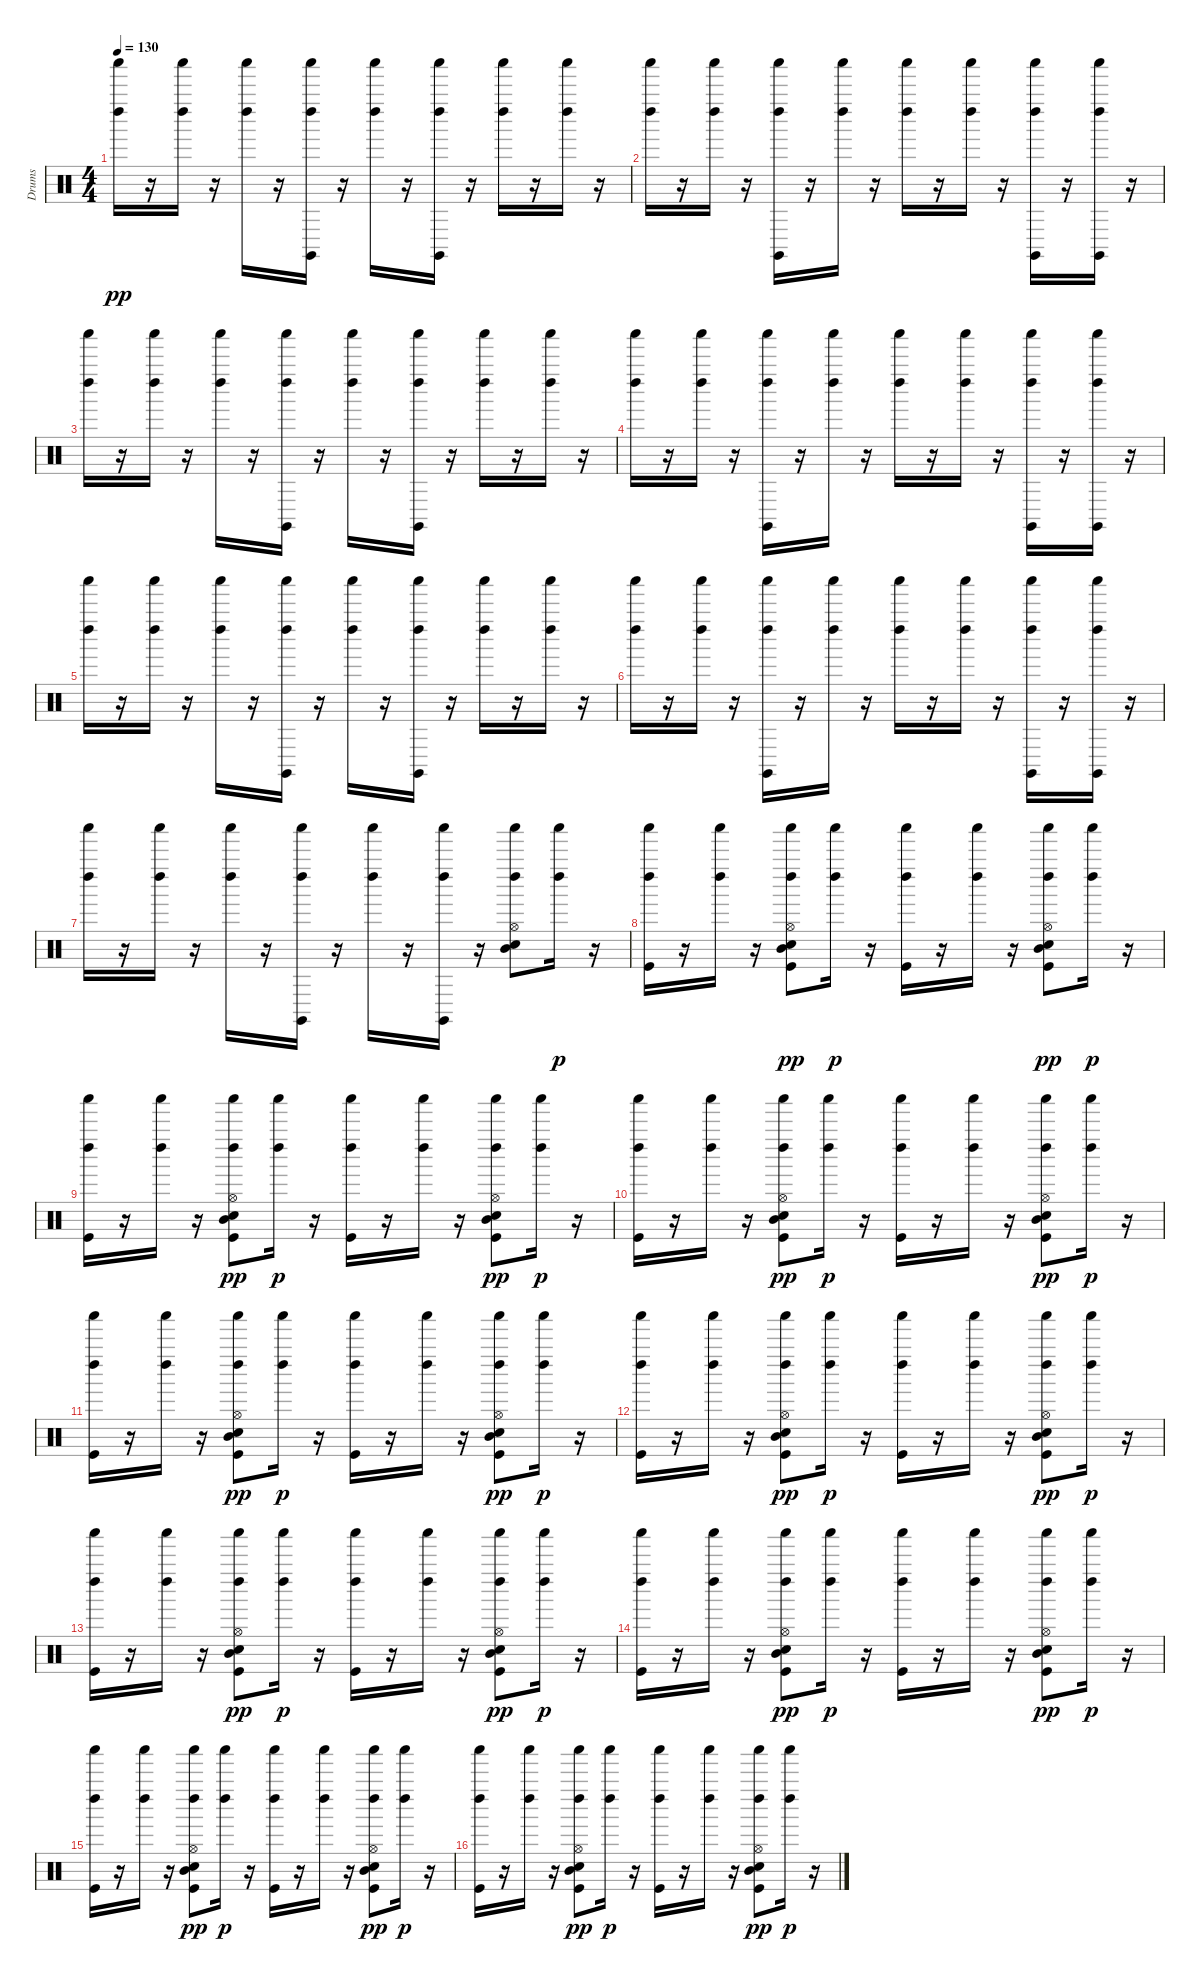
\track ("Drums" "Drums") {instrument percussion}
\staff {score}
\articulation defaults
\ts (4 4)
\tempo 130
\clef neutral
\ks c
("Shaker (hit)" "Left Maraca (hit)").16{dy pp} r.16 ("Shaker (hit)" "Left Maraca (hit)").16 r.16 ("Shaker (hit)" "Left Maraca (hit)").16 r.16 ("Claves (hit)" "Shaker (hit)" "Left Maraca (hit)").16 r.16 ("Shaker (hit)" "Left Maraca (hit)").16 r.16 ("Claves (hit)" "Shaker (hit)" "Left Maraca (hit)").16 r.16 ("Shaker (hit)" "Left Maraca (hit)").16 r.16 ("Shaker (hit)" "Left Maraca (hit)").16 r.16 |
("Shaker (hit)" "Left Maraca (hit)").16 r.16 ("Shaker (hit)" "Left Maraca (hit)").16 r.16 ("Claves (hit)" "Shaker (hit)" "Left Maraca (hit)").16 r.16 ("Shaker (hit)" "Left Maraca (hit)").16 r.16 ("Shaker (hit)" "Left Maraca (hit)").16 r.16 ("Shaker (hit)" "Left Maraca (hit)").16 r.16 ("Claves (hit)" "Shaker (hit)" "Left Maraca (hit)").16 r.16 ("Claves (hit)" "Shaker (hit)" "Left Maraca (hit)").16 r.16 |
("Shaker (hit)" "Left Maraca (hit)").16 r.16 ("Shaker (hit)" "Left Maraca (hit)").16 r.16 ("Shaker (hit)" "Left Maraca (hit)").16 r.16 ("Claves (hit)" "Shaker (hit)" "Left Maraca (hit)").16 r.16 ("Shaker (hit)" "Left Maraca (hit)").16 r.16 ("Claves (hit)" "Shaker (hit)" "Left Maraca (hit)").16 r.16 ("Shaker (hit)" "Left Maraca (hit)").16 r.16 ("Shaker (hit)" "Left Maraca (hit)").16 r.16 |
("Shaker (hit)" "Left Maraca (hit)").16 r.16 ("Shaker (hit)" "Left Maraca (hit)").16 r.16 ("Claves (hit)" "Shaker (hit)" "Left Maraca (hit)").16 r.16 ("Shaker (hit)" "Left Maraca (hit)").16 r.16 ("Shaker (hit)" "Left Maraca (hit)").16 r.16 ("Shaker (hit)" "Left Maraca (hit)").16 r.16 ("Claves (hit)" "Shaker (hit)" "Left Maraca (hit)").16 r.16 ("Claves (hit)" "Shaker (hit)" "Left Maraca (hit)").16 r.16 |
("Shaker (hit)" "Left Maraca (hit)").16 r.16 ("Shaker (hit)" "Left Maraca (hit)").16 r.16 ("Shaker (hit)" "Left Maraca (hit)").16 r.16 ("Claves (hit)" "Shaker (hit)" "Left Maraca (hit)").16 r.16 ("Shaker (hit)" "Left Maraca (hit)").16 r.16 ("Claves (hit)" "Shaker (hit)" "Left Maraca (hit)").16 r.16 ("Shaker (hit)" "Left Maraca (hit)").16 r.16 ("Shaker (hit)" "Left Maraca (hit)").16 r.16 |
("Shaker (hit)" "Left Maraca (hit)").16 r.16 ("Shaker (hit)" "Left Maraca (hit)").16 r.16 ("Claves (hit)" "Shaker (hit)" "Left Maraca (hit)").16 r.16 ("Shaker (hit)" "Left Maraca (hit)").16 r.16 ("Shaker (hit)" "Left Maraca (hit)").16 r.16 ("Shaker (hit)" "Left Maraca (hit)").16 r.16 ("Claves (hit)" "Shaker (hit)" "Left Maraca (hit)").16 r.16 ("Claves (hit)" "Shaker (hit)" "Left Maraca (hit)").16 r.16 |
("Shaker (hit)" "Left Maraca (hit)").16 r.16 ("Shaker (hit)" "Left Maraca (hit)").16 r.16 ("Shaker (hit)" "Left Maraca (hit)").16 r.16 ("Claves (hit)" "Shaker (hit)" "Left Maraca (hit)").16 r.16 ("Shaker (hit)" "Left Maraca (hit)").16 r.16 ("Claves (hit)" "Shaker (hit)" "Left Maraca (hit)").16 r.16 ("Snare (hit) 2" "Shaker (hit)" "Left Maraca (hit)" "Mid Tom (hit)" "Hi-Hat (open)").8 ("Shaker (hit)" "Left Maraca (hit)").16{dy p} r.16 |
("Kick (hit)" "Shaker (hit)" "Left Maraca (hit)").16 r.16 ("Shaker (hit)" "Left Maraca (hit)").16 r.16 ("Snare (hit) 2" "Kick (hit)" "Shaker (hit)" "Left Maraca (hit)" "Mid Tom (hit)" "Hi-Hat (open)").8{dy pp} ("Shaker (hit)" "Left Maraca (hit)").16{dy p} r.16 ("Kick (hit)" "Shaker (hit)" "Left Maraca (hit)").16 r.16 ("Shaker (hit)" "Left Maraca (hit)").16 r.16 ("Snare (hit) 2" "Kick (hit)" "Shaker (hit)" "Left Maraca (hit)" "Mid Tom (hit)" "Hi-Hat (open)").8{dy pp} ("Shaker (hit)" "Left Maraca (hit)").16{dy p} r.16 |
("Kick (hit)" "Shaker (hit)" "Left Maraca (hit)").16 r.16 ("Shaker (hit)" "Left Maraca (hit)").16 r.16 ("Snare (hit) 2" "Kick (hit)" "Shaker (hit)" "Left Maraca (hit)" "Mid Tom (hit)" "Hi-Hat (open)").8{dy pp} ("Shaker (hit)" "Left Maraca (hit)").16{dy p} r.16 ("Kick (hit)" "Shaker (hit)" "Left Maraca (hit)").16 r.16 ("Shaker (hit)" "Left Maraca (hit)").16 r.16 ("Snare (hit) 2" "Kick (hit)" "Shaker (hit)" "Left Maraca (hit)" "Mid Tom (hit)" "Hi-Hat (open)").8{dy pp} ("Shaker (hit)" "Left Maraca (hit)").16{dy p} r.16 |
("Kick (hit)" "Shaker (hit)" "Left Maraca (hit)").16 r.16 ("Shaker (hit)" "Left Maraca (hit)").16 r.16 ("Snare (hit) 2" "Kick (hit)" "Shaker (hit)" "Left Maraca (hit)" "Mid Tom (hit)" "Hi-Hat (open)").8{dy pp} ("Shaker (hit)" "Left Maraca (hit)").16{dy p} r.16 ("Kick (hit)" "Shaker (hit)" "Left Maraca (hit)").16 r.16 ("Shaker (hit)" "Left Maraca (hit)").16 r.16 ("Snare (hit) 2" "Kick (hit)" "Shaker (hit)" "Left Maraca (hit)" "Mid Tom (hit)" "Hi-Hat (open)").8{dy pp} ("Shaker (hit)" "Left Maraca (hit)").16{dy p} r.16 |
("Kick (hit)" "Shaker (hit)" "Left Maraca (hit)").16 r.16 ("Shaker (hit)" "Left Maraca (hit)").16 r.16 ("Snare (hit) 2" "Kick (hit)" "Shaker (hit)" "Left Maraca (hit)" "Mid Tom (hit)" "Hi-Hat (open)").8{dy pp} ("Shaker (hit)" "Left Maraca (hit)").16{dy p} r.16 ("Kick (hit)" "Shaker (hit)" "Left Maraca (hit)").16 r.16 ("Shaker (hit)" "Left Maraca (hit)").16 r.16 ("Snare (hit) 2" "Kick (hit)" "Shaker (hit)" "Left Maraca (hit)" "Mid Tom (hit)" "Hi-Hat (open)").8{dy pp} ("Shaker (hit)" "Left Maraca (hit)").16{dy p} r.16 |
("Kick (hit)" "Shaker (hit)" "Left Maraca (hit)").16 r.16 ("Shaker (hit)" "Left Maraca (hit)").16 r.16 ("Snare (hit) 2" "Kick (hit)" "Shaker (hit)" "Left Maraca (hit)" "Mid Tom (hit)" "Hi-Hat (open)").8{dy pp} ("Shaker (hit)" "Left Maraca (hit)").16{dy p} r.16 ("Kick (hit)" "Shaker (hit)" "Left Maraca (hit)").16 r.16 ("Shaker (hit)" "Left Maraca (hit)").16 r.16 ("Snare (hit) 2" "Kick (hit)" "Shaker (hit)" "Left Maraca (hit)" "Mid Tom (hit)" "Hi-Hat (open)").8{dy pp} ("Shaker (hit)" "Left Maraca (hit)").16{dy p} r.16 |
("Kick (hit)" "Shaker (hit)" "Left Maraca (hit)").16 r.16 ("Shaker (hit)" "Left Maraca (hit)").16 r.16 ("Snare (hit) 2" "Kick (hit)" "Shaker (hit)" "Left Maraca (hit)" "Mid Tom (hit)" "Hi-Hat (open)").8{dy pp} ("Shaker (hit)" "Left Maraca (hit)").16{dy p} r.16 ("Kick (hit)" "Shaker (hit)" "Left Maraca (hit)").16 r.16 ("Shaker (hit)" "Left Maraca (hit)").16 r.16 ("Snare (hit) 2" "Kick (hit)" "Shaker (hit)" "Left Maraca (hit)" "Mid Tom (hit)" "Hi-Hat (open)").8{dy pp} ("Shaker (hit)" "Left Maraca (hit)").16{dy p} r.16 |
("Kick (hit)" "Shaker (hit)" "Left Maraca (hit)").16 r.16 ("Shaker (hit)" "Left Maraca (hit)").16 r.16 ("Snare (hit) 2" "Kick (hit)" "Shaker (hit)" "Left Maraca (hit)" "Mid Tom (hit)" "Hi-Hat (open)").8{dy pp} ("Shaker (hit)" "Left Maraca (hit)").16{dy p} r.16 ("Kick (hit)" "Shaker (hit)" "Left Maraca (hit)").16 r.16 ("Shaker (hit)" "Left Maraca (hit)").16 r.16 ("Snare (hit) 2" "Kick (hit)" "Shaker (hit)" "Left Maraca (hit)" "Mid Tom (hit)" "Hi-Hat (open)").8{dy pp} ("Shaker (hit)" "Left Maraca (hit)").16{dy p} r.16 |
("Kick (hit)" "Shaker (hit)" "Left Maraca (hit)").16 r.16 ("Shaker (hit)" "Left Maraca (hit)").16 r.16 ("Snare (hit) 2" "Kick (hit)" "Shaker (hit)" "Left Maraca (hit)" "Mid Tom (hit)" "Hi-Hat (open)").8{dy pp} ("Shaker (hit)" "Left Maraca (hit)").16{dy p} r.16 ("Kick (hit)" "Shaker (hit)" "Left Maraca (hit)").16 r.16 ("Shaker (hit)" "Left Maraca (hit)").16 r.16 ("Snare (hit) 2" "Kick (hit)" "Shaker (hit)" "Left Maraca (hit)" "Mid Tom (hit)" "Hi-Hat (open)").8{dy pp} ("Shaker (hit)" "Left Maraca (hit)").16{dy p} r.16 |
("Kick (hit)" "Shaker (hit)" "Left Maraca (hit)").16 r.16 ("Shaker (hit)" "Left Maraca (hit)").16 r.16 ("Snare (hit) 2" "Kick (hit)" "Shaker (hit)" "Left Maraca (hit)" "Mid Tom (hit)" "Hi-Hat (open)").8{dy pp} ("Shaker (hit)" "Left Maraca (hit)").16{dy p} r.16 ("Kick (hit)" "Shaker (hit)" "Left Maraca (hit)").16 r.16 ("Shaker (hit)" "Left Maraca (hit)").16 r.16 ("Snare (hit) 2" "Kick (hit)" "Shaker (hit)" "Left Maraca (hit)" "Mid Tom (hit)" "Hi-Hat (open)").8{dy pp} ("Shaker (hit)" "Left Maraca (hit)").16{dy p} r.16
